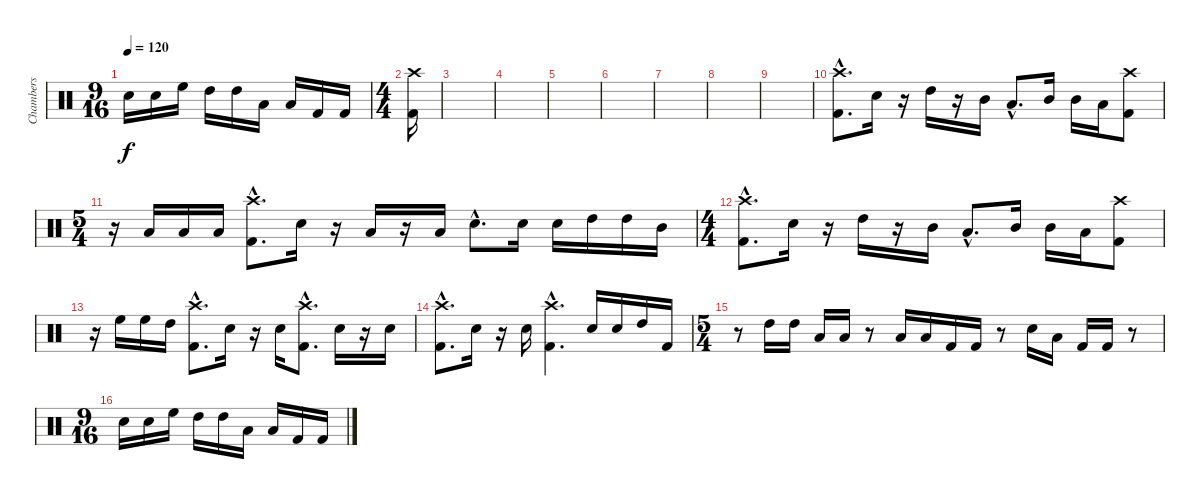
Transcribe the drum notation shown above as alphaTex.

\track ("Chambers" "Chambers") {instrument percussion}
\staff {score}
\articulation defaults
\ts (9 16)
\tempo 120
\clef neutral
\ks c "Electric Snare (hit)".16{dy f} "Electric Snare (hit)".16 "High Floor Tom (hit)".16 "High Tom (hit)".16 "High Tom (hit)".16 "Low Tom (hit)".16 "Low Tom (hit)".16 "Kick (hit) 2".16 "Kick (hit) 2".16
|
\ts (4 4)
("Crash high (hit)" "Kick (hit) 2").16 |
|
|
|
|
|
|
|
("Crash high (hit)"{hac} "Kick (hit) 2"{hac}).8{d} "Electric Snare (hit)".16 r.16 "High Tom (hit)".16 r.16 "Mid Tom (hit)".16 "Low Tom (hit)"{hac}.8{d} "Mid Tom (hit)".16 "Mid Tom (hit)".16 "Low Tom (hit)".16 ("Crash high (hit)" "Kick (hit) 2").8 |
\ts (5 4)
r.16 "Low Tom (hit)".16 "Low Tom (hit)".16 "Low Tom (hit)".16 ("Crash high (hit)"{hac} "Kick (hit) 2"{hac}).8{d} "Electric Snare (hit)".16 r.16 "Low Tom (hit)".16 r.16 "Low Tom (hit)".16 "Electric Snare (hit)"{hac}.8{d} "Electric Snare (hit)".16 "Electric Snare (hit)".16 "High Tom (hit)".16 "High Tom (hit)".16 "Mid Tom (hit)".16 |
\ts (4 4)
("Crash high (hit)"{hac} "Kick (hit) 2"{hac}).8{d} "Electric Snare (hit)".16 r.16 "High Tom (hit)".16 r.16 "Mid Tom (hit)".16 "Low Tom (hit)"{hac}.8{d} "Mid Tom (hit)".16 "Mid Tom (hit)".16 "Low Tom (hit)".16 ("Crash high (hit)" "Kick (hit) 2").8 |
r.16 "High Floor Tom (hit)".16 "High Floor Tom (hit)".16 "High Tom (hit)".16 ("Crash high (hit)"{hac} "Kick (hit) 2"{hac}).8{d} "Electric Snare (hit)".16 r.16 "Electric Snare (hit)".16 ("Crash high (hit)"{hac} "Kick (hit) 2"{hac}).8{d} "Electric Snare (hit)".16 r.16 "Electric Snare (hit)".16 |
("Crash high (hit)"{hac} "Kick (hit) 2"{hac}).8{d} "Electric Snare (hit)".16 r.16 "Electric Snare (hit)".16 ("Crash high (hit)"{hac} "Kick (hit) 2"{hac}).4{d} "Electric Snare (hit)".16 "Electric Snare (hit)".16 "High Tom (hit)".16 "Kick (hit) 2".16 |
\ts (5 4)
r.8 "High Tom (hit)".16 "High Tom (hit)".16 "Low Tom (hit)".16 "Low Tom (hit)".16 r.8 "Low Tom (hit)".16 "Low Tom (hit)".16 "Kick (hit) 2".16 "Kick (hit) 2".16 r.8 "Electric Snare (hit)".16 "Low Tom (hit)".16 "Kick (hit) 2".16 "Kick (hit) 2".16 r.8 |
\ts (9 16)
"Electric Snare (hit)".16 "Electric Snare (hit)".16 "High Floor Tom (hit)".16 "High Tom (hit)".16 "High Tom (hit)".16 "Low Tom (hit)".16 "Low Tom (hit)".16 "Kick (hit) 2".16 "Kick (hit) 2".16
